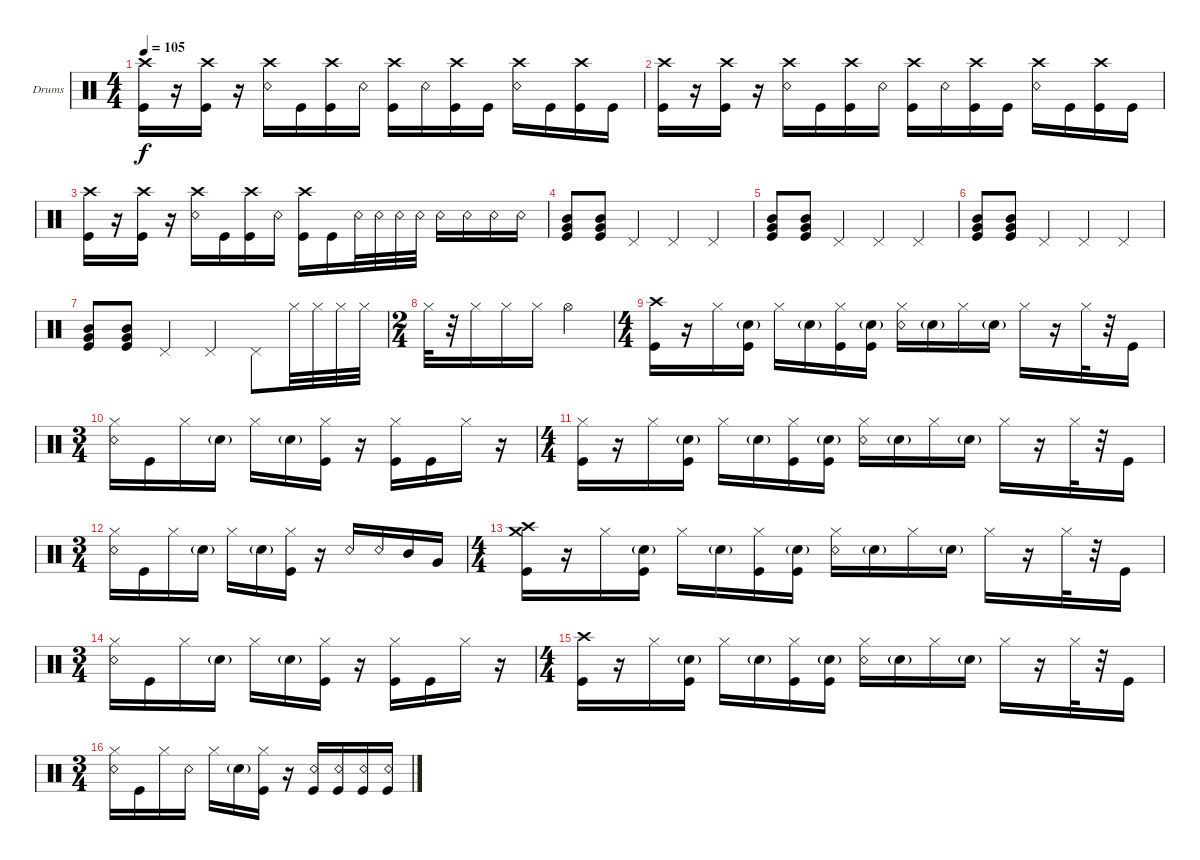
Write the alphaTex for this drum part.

\bracketExtendMode groupsimilarinstruments
\firstSystemTrackNameOrientation horizontal
\otherSystemsTrackNameOrientation horizontal
\track ("[STEWART]" "Drums") {instrument percussion}
\staff {score}
\articulation defaults
\ts (4 4)
\tempo 105
\clef neutral
\ks c
("Crash high (hit)" "Kick (hit)").16{dy f} r.16 ("Crash high (hit)" "Kick (hit)").16 r.16 ("Crash high (hit)" "Snare (rim shot)").16 "Kick (hit)".16 ("Crash high (hit)" "Kick (hit)").16 "Snare (rim shot)".16 ("Crash high (hit)" "Kick (hit)").16 "Snare (rim shot)".16 ("Crash high (hit)" "Kick (hit)").16 "Kick (hit)".16 ("Crash high (hit)" "Snare (rim shot)").16 "Kick (hit)".16 ("Crash high (hit)" "Kick (hit)").16 "Kick (hit)".16 |
("Crash high (hit)" "Kick (hit)").16 r.16 ("Crash high (hit)" "Kick (hit)").16 r.16 ("Crash high (hit)" "Snare (rim shot)").16 "Kick (hit)".16 ("Crash high (hit)" "Kick (hit)").16 "Snare (rim shot)".16 ("Crash high (hit)" "Kick (hit)").16 "Snare (rim shot)".16 ("Crash high (hit)" "Kick (hit)").16 "Kick (hit)".16 ("Crash high (hit)" "Snare (rim shot)").16 "Kick (hit)".16 ("Crash high (hit)" "Kick (hit)").16 "Kick (hit)".16 |
("Crash high (hit)" "Kick (hit)").16 r.16 ("Crash high (hit)" "Kick (hit)").16 r.16 ("Crash high (hit)" "Snare (rim shot)").16 "Kick (hit)".16 ("Crash high (hit)" "Kick (hit)").16 "Snare (rim shot)".16 ("Crash high (hit)" "Kick (hit)").16 "Kick (hit)".16 "Snare (rim shot)".32 "Snare (rim shot)".32 "Snare (rim shot)".32 "Snare (rim shot)".32 "Snare (rim shot)".16 "Snare (rim shot)".16 "Snare (rim shot)".16 "Snare (rim shot)".16 |
("Kick (hit)" "Very Low Tom (hit)" "Mid Tom (hit)").8 ("Kick (hit)" "Mid Tom (hit)" "Very Low Tom (hit)").8 "Pedal Hi-Hat (hit)".4 "Pedal Hi-Hat (hit)".4 "Pedal Hi-Hat (hit)".4 |
("Kick (hit)" "Very Low Tom (hit)" "Mid Tom (hit)").8 ("Kick (hit)" "Mid Tom (hit)" "Very Low Tom (hit)").8 "Pedal Hi-Hat (hit)".4 "Pedal Hi-Hat (hit)".4 "Pedal Hi-Hat (hit)".4 |
("Kick (hit)" "Very Low Tom (hit)" "Mid Tom (hit)").8 ("Kick (hit)" "Mid Tom (hit)" "Very Low Tom (hit)").8 "Pedal Hi-Hat (hit)".4 "Pedal Hi-Hat (hit)".4 "Pedal Hi-Hat (hit)".4 |
("Kick (hit)" "Very Low Tom (hit)" "Mid Tom (hit)").8 ("Kick (hit)" "Mid Tom (hit)" "Very Low Tom (hit)").8 "Pedal Hi-Hat (hit)".4 "Pedal Hi-Hat (hit)".4 "Pedal Hi-Hat (hit)".8 "Hi-Hat (closed)".32 "Hi-Hat (closed)".32 "Hi-Hat (closed)".32 "Hi-Hat (closed)".32 |
\ts (2 4)
"Hi-Hat (closed)".32 r.32 "Hi-Hat (closed)".16 "Hi-Hat (closed)".16 "Hi-Hat (closed)".16 "Hi-Hat (open)".4 |
\ts (4 4)
("Crash high (hit)" "Kick (hit)").16 r.16 "Hi-Hat (closed)".16 ("Kick (hit)" "Snare (hit) 2"{g}).16 "Hi-Hat (closed)".16 "Snare (hit) 2"{g}.16 ("Hi-Hat (closed)" "Kick (hit)").16 ("Kick (hit)" "Snare (hit) 2"{g}).16 ("Hi-Hat (closed)" "Snare (rim shot)").16 "Snare (hit) 2"{g}.16 "Hi-Hat (closed)".16 "Snare (hit) 2"{g}.16 "Hi-Hat (closed)".16 r.16 "Hi-Hat (closed)".32 r.32 "Kick (hit)".16 |
\ts (3 4)
("Hi-Hat (closed)" "Snare (rim shot)").16 "Kick (hit)".16 "Hi-Hat (closed)".16 "Snare (hit) 2"{g}.16 "Hi-Hat (closed)".16 "Snare (hit) 2"{g}.16 ("Hi-Hat (closed)" "Kick (hit)").16 r.16 ("Hi-Hat (closed)" "Kick (hit)").16 "Kick (hit)".16 "Hi-Hat (closed)".16 r.16 |
\ts (4 4)
("Kick (hit)" "Hi-Hat (closed)").16 r.16 "Hi-Hat (closed)".16 ("Kick (hit)" "Snare (hit) 2"{g}).16 "Hi-Hat (closed)".16 "Snare (hit) 2"{g}.16 ("Hi-Hat (closed)" "Kick (hit)").16 ("Kick (hit)" "Snare (hit) 2"{g}).16 ("Hi-Hat (closed)" "Snare (rim shot)").16 "Snare (hit) 2"{g}.16 "Hi-Hat (closed)".16 "Snare (hit) 2"{g}.16 "Hi-Hat (closed)".16 r.16 "Hi-Hat (closed)".32 r.32 "Kick (hit)".16 |
\ts (3 4)
("Hi-Hat (closed)" "Snare (rim shot)").16 "Kick (hit)".16 "Hi-Hat (closed)".16 "Snare (hit) 2"{g}.16 "Hi-Hat (closed)".16 "Snare (hit) 2"{g}.16 ("Hi-Hat (closed)" "Kick (hit)").16 r.16 "Snare (rim shot)".16 "Snare (rim shot)".16 "Mid Tom (hit)".16 "Very Low Tom (hit)".16 |
\ts (4 4)
("Crash high (hit)" "Kick (hit)" "Crash medium (hit)").16 r.16 "Hi-Hat (closed)".16 ("Kick (hit)" "Snare (hit) 2"{g}).16 "Hi-Hat (closed)".16 "Snare (hit) 2"{g}.16 ("Hi-Hat (closed)" "Kick (hit)").16 ("Kick (hit)" "Snare (hit) 2"{g}).16 ("Hi-Hat (closed)" "Snare (rim shot)").16 "Snare (hit) 2"{g}.16 "Hi-Hat (closed)".16 "Snare (hit) 2"{g}.16 "Hi-Hat (closed)".16 r.16 "Hi-Hat (closed)".32 r.32 "Kick (hit)".16 |
\ts (3 4)
("Hi-Hat (closed)" "Snare (rim shot)").16 "Kick (hit)".16 "Hi-Hat (closed)".16 "Snare (hit) 2"{g}.16 "Hi-Hat (closed)".16 "Snare (hit) 2"{g}.16 ("Hi-Hat (closed)" "Kick (hit)").16 r.16 ("Hi-Hat (closed)" "Kick (hit)").16 "Kick (hit)".16 "Hi-Hat (closed)".16 r.16 |
\ts (4 4)
("Crash high (hit)" "Kick (hit)").16 r.16 "Hi-Hat (closed)".16 ("Kick (hit)" "Snare (hit) 2"{g}).16 "Hi-Hat (closed)".16 "Snare (hit) 2"{g}.16 ("Hi-Hat (closed)" "Kick (hit)").16 ("Kick (hit)" "Snare (hit) 2"{g}).16 ("Hi-Hat (closed)" "Snare (rim shot)").16 "Snare (hit) 2"{g}.16 "Hi-Hat (closed)".16 "Snare (hit) 2"{g}.16 "Hi-Hat (closed)".16 r.16 "Hi-Hat (closed)".32 r.32 "Kick (hit)".16 |
\ts (3 4)
("Hi-Hat (closed)" "Snare (rim shot)").16 "Kick (hit)".16 "Hi-Hat (closed)".16 "Snare (rim shot)".16 "Hi-Hat (closed)".16 "Snare (hit) 2"{g}.16 ("Hi-Hat (closed)" "Kick (hit)").16 r.16 ("Kick (hit)" "Snare (rim shot)").16 ("Kick (hit)" "Snare (rim shot)").16 ("Kick (hit)" "Snare (rim shot)").16 ("Kick (hit)" "Snare (rim shot)").16
